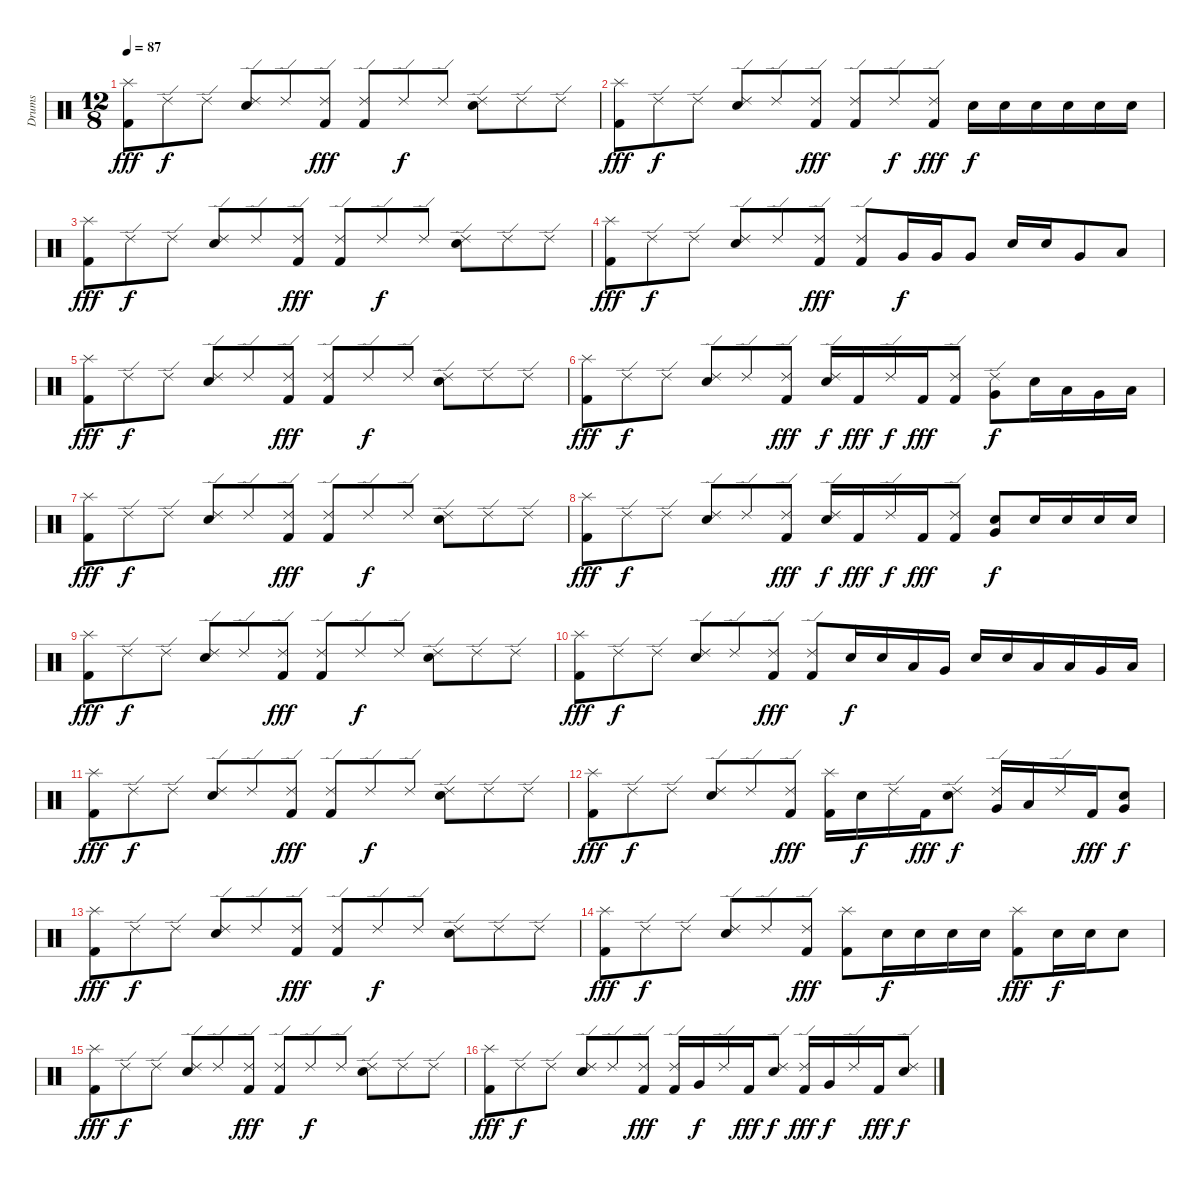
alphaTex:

\track ("Drums" "Drums") {instrument percussion}
\staff {score}
\articulation defaults
\ts (12 8)
\tempo 87
\clef neutral
\ks c
("Splash (hit)" "Kick (hit) 2").8{dy fff} "Ride (edge) 2".8{dy f} "Ride (edge) 2".8 ("Ride (edge) 2" "Snare (hit) 2").8 "Ride (edge) 2".8 ("Ride (edge) 2" "Kick (hit) 2").8{dy fff} ("Ride (edge) 2" "Kick (hit) 2").8 "Ride (edge) 2".8{dy f} "Ride (edge) 2".8 ("Ride (edge) 2" "Snare (hit) 2").8 "Ride (edge) 2".8 "Ride (edge) 2".8 |
("Splash (hit)" "Kick (hit) 2").8{dy fff} "Ride (edge) 2".8{dy f} "Ride (edge) 2".8 ("Ride (edge) 2" "Snare (hit) 2").8 "Ride (edge) 2".8 ("Ride (edge) 2" "Kick (hit) 2").8{dy fff} ("Ride (edge) 2" "Kick (hit) 2").8 "Ride (edge) 2".8{dy f} ("Ride (edge) 2" "Kick (hit) 2").8{dy fff} "Snare (hit) 2".16{dy f} "Snare (hit) 2".16 "Snare (hit) 2".16 "Snare (hit) 2".16 "Snare (hit) 2".16 "Snare (hit) 2".16 |
("Splash (hit)" "Kick (hit) 2").8{dy fff} "Ride (edge) 2".8{dy f} "Ride (edge) 2".8 ("Ride (edge) 2" "Snare (hit) 2").8 "Ride (edge) 2".8 ("Ride (edge) 2" "Kick (hit) 2").8{dy fff} ("Ride (edge) 2" "Kick (hit) 2").8 "Ride (edge) 2".8{dy f} "Ride (edge) 2".8 ("Ride (edge) 2" "Snare (hit) 2").8 "Ride (edge) 2".8 "Ride (edge) 2".8 |
("Splash (hit)" "Kick (hit) 2").8{dy fff} "Ride (edge) 2".8{dy f} "Ride (edge) 2".8 ("Ride (edge) 2" "Snare (hit) 2").8 "Ride (edge) 2".8 ("Ride (edge) 2" "Kick (hit) 2").8{dy fff} ("Ride (edge) 2" "Kick (hit) 2").8 "Very Low Tom (hit)".16{dy f} "Very Low Tom (hit)".16 "Very Low Tom (hit)".8 "Snare (hit) 2".16 "Snare (hit) 2".16 "Very Low Tom (hit)".8 "Low Floor Tom (hit)".8 |
("Splash (hit)" "Kick (hit) 2").8{dy fff} "Ride (edge) 2".8{dy f} "Ride (edge) 2".8 ("Ride (edge) 2" "Snare (hit) 2").8 "Ride (edge) 2".8 ("Ride (edge) 2" "Kick (hit) 2").8{dy fff} ("Ride (edge) 2" "Kick (hit) 2").8 "Ride (edge) 2".8{dy f} "Ride (edge) 2".8 ("Ride (edge) 2" "Snare (hit) 2").8 "Ride (edge) 2".8 "Ride (edge) 2".8 |
("Splash (hit)" "Kick (hit) 2").8{dy fff} "Ride (edge) 2".8{dy f} "Ride (edge) 2".8 ("Ride (edge) 2" "Snare (hit) 2").8 "Ride (edge) 2".8 ("Ride (edge) 2" "Kick (hit) 2").8{dy fff} ("Ride (edge) 2" "Snare (hit) 2").16{dy f} "Kick (hit) 2".16{dy fff} "Ride (edge) 2".16{dy f} "Kick (hit) 2".16{dy fff} ("Ride (edge) 2" "Kick (hit) 2").8 ("Ride (edge) 2" "Very Low Tom (hit)").8{dy f} "Snare (hit) 2".16 "Low Tom (hit)".16 "Very Low Tom (hit)".16 "Low Floor Tom (hit)".16 |
("Splash (hit)" "Kick (hit) 2").8{dy fff} "Ride (edge) 2".8{dy f} "Ride (edge) 2".8 ("Ride (edge) 2" "Snare (hit) 2").8 "Ride (edge) 2".8 ("Ride (edge) 2" "Kick (hit) 2").8{dy fff} ("Ride (edge) 2" "Kick (hit) 2").8 "Ride (edge) 2".8{dy f} "Ride (edge) 2".8 ("Ride (edge) 2" "Snare (hit) 2").8 "Ride (edge) 2".8 "Ride (edge) 2".8 |
("Splash (hit)" "Kick (hit) 2").8{dy fff} "Ride (edge) 2".8{dy f} "Ride (edge) 2".8 ("Ride (edge) 2" "Snare (hit) 2").8 "Ride (edge) 2".8 ("Ride (edge) 2" "Kick (hit) 2").8{dy fff} ("Ride (edge) 2" "Snare (hit) 2").16{dy f} "Kick (hit) 2".16{dy fff} "Ride (edge) 2".16{dy f} "Kick (hit) 2".16{dy fff} ("Ride (edge) 2" "Kick (hit) 2").8 ("Snare (hit) 2" "Very Low Tom (hit)").8{dy f} "Snare (hit) 2".16 "Snare (hit) 2".16 "Snare (hit) 2".16 "Snare (hit) 2".16 |
("Splash (hit)" "Kick (hit) 2").8{dy fff} "Ride (edge) 2".8{dy f} "Ride (edge) 2".8 ("Ride (edge) 2" "Snare (hit) 2").8 "Ride (edge) 2".8 ("Ride (edge) 2" "Kick (hit) 2").8{dy fff} ("Ride (edge) 2" "Kick (hit) 2").8 "Ride (edge) 2".8{dy f} "Ride (edge) 2".8 ("Ride (edge) 2" "Snare (hit) 2").8 "Ride (edge) 2".8 "Ride (edge) 2".8 |
("Splash (hit)" "Kick (hit) 2").8{dy fff} "Ride (edge) 2".8{dy f} "Ride (edge) 2".8 ("Ride (edge) 2" "Snare (hit) 2").8 "Ride (edge) 2".8 ("Ride (edge) 2" "Kick (hit) 2").8{dy fff} ("Ride (edge) 2" "Kick (hit) 2").8 "Snare (hit) 2".16{dy f} "Snare (hit) 2".16 "Low Tom (hit)".16 "Very Low Tom (hit)".16 "Snare (hit) 2".16 "Snare (hit) 2".16 "Low Tom (hit)".16 "Low Tom (hit)".16 "Very Low Tom (hit)".16 "Low Floor Tom (hit)".16 |
("Splash (hit)" "Kick (hit) 2").8{dy fff} "Ride (edge) 2".8{dy f} "Ride (edge) 2".8 ("Ride (edge) 2" "Snare (hit) 2").8 "Ride (edge) 2".8 ("Ride (edge) 2" "Kick (hit) 2").8{dy fff} ("Ride (edge) 2" "Kick (hit) 2").8 "Ride (edge) 2".8{dy f} "Ride (edge) 2".8 ("Ride (edge) 2" "Snare (hit) 2").8 "Ride (edge) 2".8 "Ride (edge) 2".8 |
("Splash (hit)" "Kick (hit) 2").8{dy fff} "Ride (edge) 2".8{dy f} "Ride (edge) 2".8 ("Ride (edge) 2" "Snare (hit) 2").8 "Ride (edge) 2".8 ("Ride (edge) 2" "Kick (hit) 2").8{dy fff} ("Splash (hit)" "Kick (hit) 2").16 "Snare (hit) 2".16{dy f} "Ride (edge) 2".16 "Kick (hit) 2".16{dy fff} ("Ride (edge) 2" "Snare (hit) 2").8{dy f} ("Ride (edge) 2" "Very Low Tom (hit)").16 "Low Floor Tom (hit)".16 "Ride (edge) 2".16 "Kick (hit) 2".16{dy fff} ("Snare (hit) 2" "Very Low Tom (hit)").8{dy f} |
("Splash (hit)" "Kick (hit) 2").8{dy fff} "Ride (edge) 2".8{dy f} "Ride (edge) 2".8 ("Ride (edge) 2" "Snare (hit) 2").8 "Ride (edge) 2".8 ("Ride (edge) 2" "Kick (hit) 2").8{dy fff} ("Ride (edge) 2" "Kick (hit) 2").8 "Ride (edge) 2".8{dy f} "Ride (edge) 2".8 ("Ride (edge) 2" "Snare (hit) 2").8 "Ride (edge) 2".8 "Ride (edge) 2".8 |
("Splash (hit)" "Kick (hit) 2").8{dy fff} "Ride (edge) 2".8{dy f} "Ride (edge) 2".8 ("Ride (edge) 2" "Snare (hit) 2").8 "Ride (edge) 2".8 ("Ride (edge) 2" "Kick (hit) 2").8{dy fff} ("Splash (hit)" "Kick (hit) 2").8 "Snare (hit) 2".16{dy f} "Snare (hit) 2".16 "Snare (hit) 2".16 "Snare (hit) 2".16 ("Splash (hit)" "Kick (hit) 2").8{dy fff} "Snare (hit) 2".16{dy f} "Snare (hit) 2".16 "Snare (hit) 2".8 |
("Splash (hit)" "Kick (hit) 2").8{dy fff} "Ride (edge) 2".8{dy f} "Ride (edge) 2".8 ("Ride (edge) 2" "Snare (hit) 2").8 "Ride (edge) 2".8 ("Ride (edge) 2" "Kick (hit) 2").8{dy fff} ("Ride (edge) 2" "Kick (hit) 2").8 "Ride (edge) 2".8{dy f} "Ride (edge) 2".8 ("Ride (edge) 2" "Snare (hit) 2").8 "Ride (edge) 2".8 "Ride (edge) 2".8 |
("Splash (hit)" "Kick (hit) 2").8{dy fff} "Ride (edge) 2".8{dy f} "Ride (edge) 2".8 ("Ride (edge) 2" "Snare (hit) 2").8 "Ride (edge) 2".8 ("Ride (edge) 2" "Kick (hit) 2").8{dy fff} ("Ride (edge) 2" "Kick (hit) 2").16 "Very Low Tom (hit)".16{dy f} "Ride (edge) 2".16 "Kick (hit) 2".16{dy fff} ("Ride (edge) 2" "Snare (hit) 2").8{dy f} ("Ride (edge) 2" "Kick (hit) 2").16{dy fff} "Very Low Tom (hit)".16{dy f} "Ride (edge) 2".16 "Kick (hit) 2".16{dy fff} ("Ride (edge) 2" "Snare (hit) 2").8{dy f}
